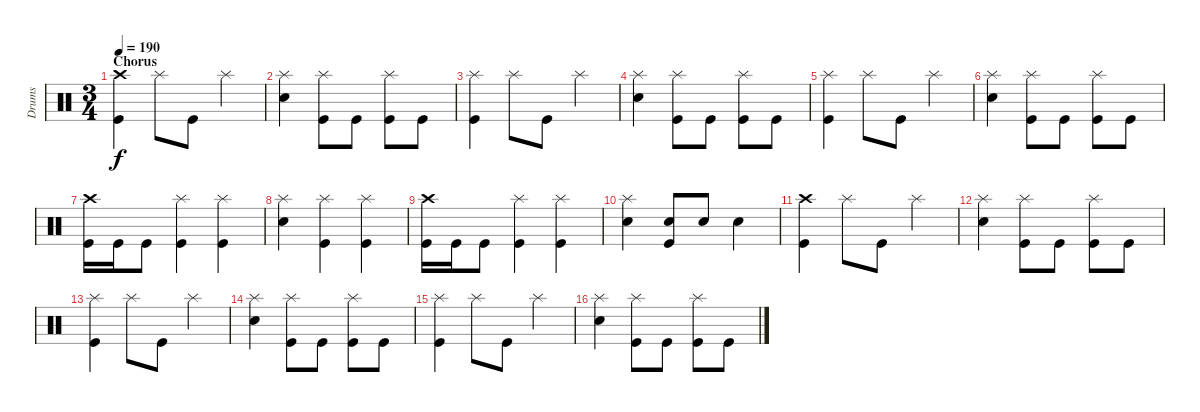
\track ("Drums" "Drums") {instrument percussion}
\staff {score}
\articulation defaults
\ts (3 4)
\section ("" "Chorus")
\tempo 190
\clef neutral
\ks c
("Kick (hit)" "Crash high (hit)").4{dy f} "Splash (hit)".8 "Kick (hit)".8 "Splash (hit)".4 |
("Snare (hit) 2" "Splash (hit)").4 ("Splash (hit)" "Kick (hit)").8 "Kick (hit)".8 ("Kick (hit)" "Splash (hit)").8 "Kick (hit)".8 |
("Kick (hit)" "Splash (hit)").4 "Splash (hit)".8 "Kick (hit)".8 "Splash (hit)".4 |
("Snare (hit) 2" "Splash (hit)").4 ("Splash (hit)" "Kick (hit)").8 "Kick (hit)".8 ("Kick (hit)" "Splash (hit)").8 "Kick (hit)".8 |
("Kick (hit)" "Splash (hit)").4 "Splash (hit)".8 "Kick (hit)".8 "Splash (hit)".4 |
("Snare (hit) 2" "Splash (hit)").4 ("Splash (hit)" "Kick (hit)").8 "Kick (hit)".8 ("Kick (hit)" "Splash (hit)").8 "Kick (hit)".8 |
("Kick (hit)" "Crash high (hit)").16 "Kick (hit)".16 "Kick (hit)".8 ("Splash (hit)" "Kick (hit)").4 ("Kick (hit)" "Splash (hit)").4 |
("Snare (hit) 2" "Splash (hit)").4 ("Splash (hit)" "Kick (hit)").4 ("Splash (hit)" "Kick (hit)").4 |
("Kick (hit)" "Crash high (hit)").16 "Kick (hit)".16 "Kick (hit)".8 ("Splash (hit)" "Kick (hit)").4 ("Kick (hit)" "Splash (hit)").4 |
("Snare (hit) 2" "Splash (hit)").4 ("Snare (hit) 2" "Kick (hit)").8 "Snare (hit) 2".8 "Snare (hit) 2".4 |
("Kick (hit)" "Crash high (hit)").4 "Splash (hit)".8 "Kick (hit)".8 "Splash (hit)".4 |
("Snare (hit) 2" "Splash (hit)").4 ("Splash (hit)" "Kick (hit)").8 "Kick (hit)".8 ("Kick (hit)" "Splash (hit)").8 "Kick (hit)".8 |
("Kick (hit)" "Splash (hit)").4 "Splash (hit)".8 "Kick (hit)".8 "Splash (hit)".4 |
("Snare (hit) 2" "Splash (hit)").4 ("Splash (hit)" "Kick (hit)").8 "Kick (hit)".8 ("Kick (hit)" "Splash (hit)").8 "Kick (hit)".8 |
("Kick (hit)" "Splash (hit)").4 "Splash (hit)".8 "Kick (hit)".8 "Splash (hit)".4 |
("Snare (hit) 2" "Splash (hit)").4 ("Splash (hit)" "Kick (hit)").8 "Kick (hit)".8 ("Kick (hit)" "Splash (hit)").8 "Kick (hit)".8
